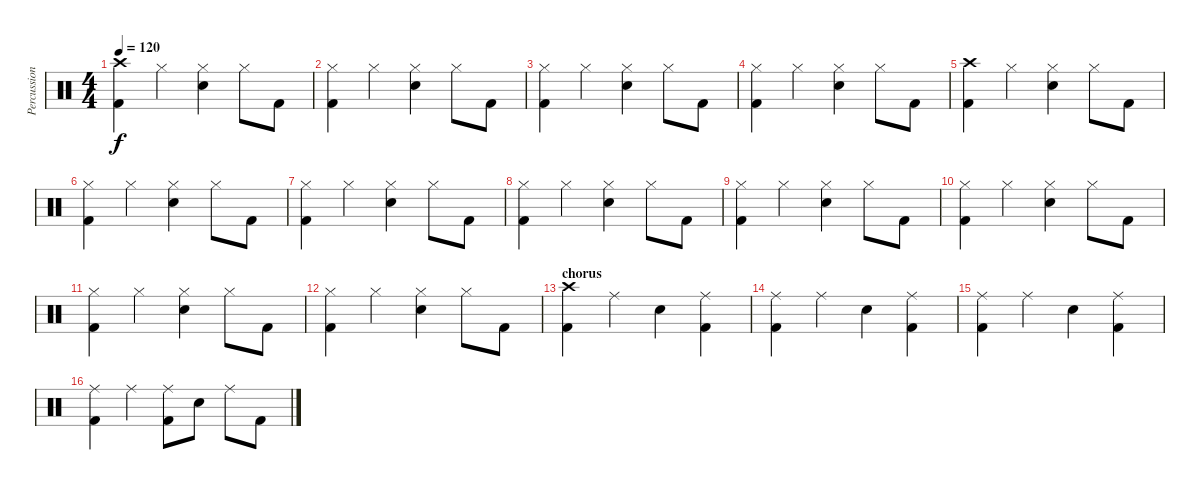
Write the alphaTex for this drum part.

\track ("Percussion" "Percussion") {instrument percussion}
\staff {score}
\articulation defaults
\ts (4 4)
\tempo 120
\clef neutral
\ks c
("Crash high (hit)" "Kick (hit) 2").4{dy f} "Hi-Hat (closed)".4 ("Snare (hit) 2" "Hi-Hat (closed)").4 "Hi-Hat (closed)".8 "Kick (hit) 2".8 |
("Hi-Hat (closed)" "Kick (hit) 2").4 "Hi-Hat (closed)".4 ("Snare (hit) 2" "Hi-Hat (closed)").4 "Hi-Hat (closed)".8 "Kick (hit) 2".8 |
("Hi-Hat (closed)" "Kick (hit) 2").4 "Hi-Hat (closed)".4 ("Snare (hit) 2" "Hi-Hat (closed)").4 "Hi-Hat (closed)".8 "Kick (hit) 2".8 |
("Hi-Hat (closed)" "Kick (hit) 2").4 "Hi-Hat (closed)".4 ("Snare (hit) 2" "Hi-Hat (closed)").4 "Hi-Hat (closed)".8 "Kick (hit) 2".8 |
("Crash high (hit)" "Kick (hit) 2").4 "Hi-Hat (closed)".4 ("Snare (hit) 2" "Hi-Hat (closed)").4 "Hi-Hat (closed)".8 "Kick (hit) 2".8 |
("Hi-Hat (closed)" "Kick (hit) 2").4 "Hi-Hat (closed)".4 ("Snare (hit) 2" "Hi-Hat (closed)").4 "Hi-Hat (closed)".8 "Kick (hit) 2".8 |
("Hi-Hat (closed)" "Kick (hit) 2").4 "Hi-Hat (closed)".4 ("Snare (hit) 2" "Hi-Hat (closed)").4 "Hi-Hat (closed)".8 "Kick (hit) 2".8 |
("Hi-Hat (closed)" "Kick (hit) 2").4 "Hi-Hat (closed)".4 ("Snare (hit) 2" "Hi-Hat (closed)").4 "Hi-Hat (closed)".8 "Kick (hit) 2".8 |
("Hi-Hat (closed)" "Kick (hit) 2").4 "Hi-Hat (closed)".4 ("Snare (hit) 2" "Hi-Hat (closed)").4 "Hi-Hat (closed)".8 "Kick (hit) 2".8 |
("Hi-Hat (closed)" "Kick (hit) 2").4 "Hi-Hat (closed)".4 ("Snare (hit) 2" "Hi-Hat (closed)").4 "Hi-Hat (closed)".8 "Kick (hit) 2".8 |
("Hi-Hat (closed)" "Kick (hit) 2").4 "Hi-Hat (closed)".4 ("Snare (hit) 2" "Hi-Hat (closed)").4 "Hi-Hat (closed)".8 "Kick (hit) 2".8 |
("Hi-Hat (closed)" "Kick (hit) 2").4 "Hi-Hat (closed)".4 ("Snare (hit) 2" "Hi-Hat (closed)").4 "Hi-Hat (closed)".8 "Kick (hit) 2".8 |
\section ("" "chorus")
("Crash high (hit)" "Kick (hit) 2").4 "Ride (middle)".4 "Snare (hit) 2".4 ("Ride (middle)" "Kick (hit) 2").4 |
("Ride (middle)" "Kick (hit) 2").4 "Ride (middle)".4 "Snare (hit) 2".4 ("Ride (middle)" "Kick (hit) 2").4 |
("Ride (middle)" "Kick (hit) 2").4 "Ride (middle)".4 "Snare (hit) 2".4 ("Ride (middle)" "Kick (hit) 2").4 |
("Ride (middle)" "Kick (hit) 2").4 "Ride (middle)".4 ("Ride (middle)" "Kick (hit) 2").8 "Snare (hit) 2".8 "Ride (middle)".8 "Kick (hit) 2".8
